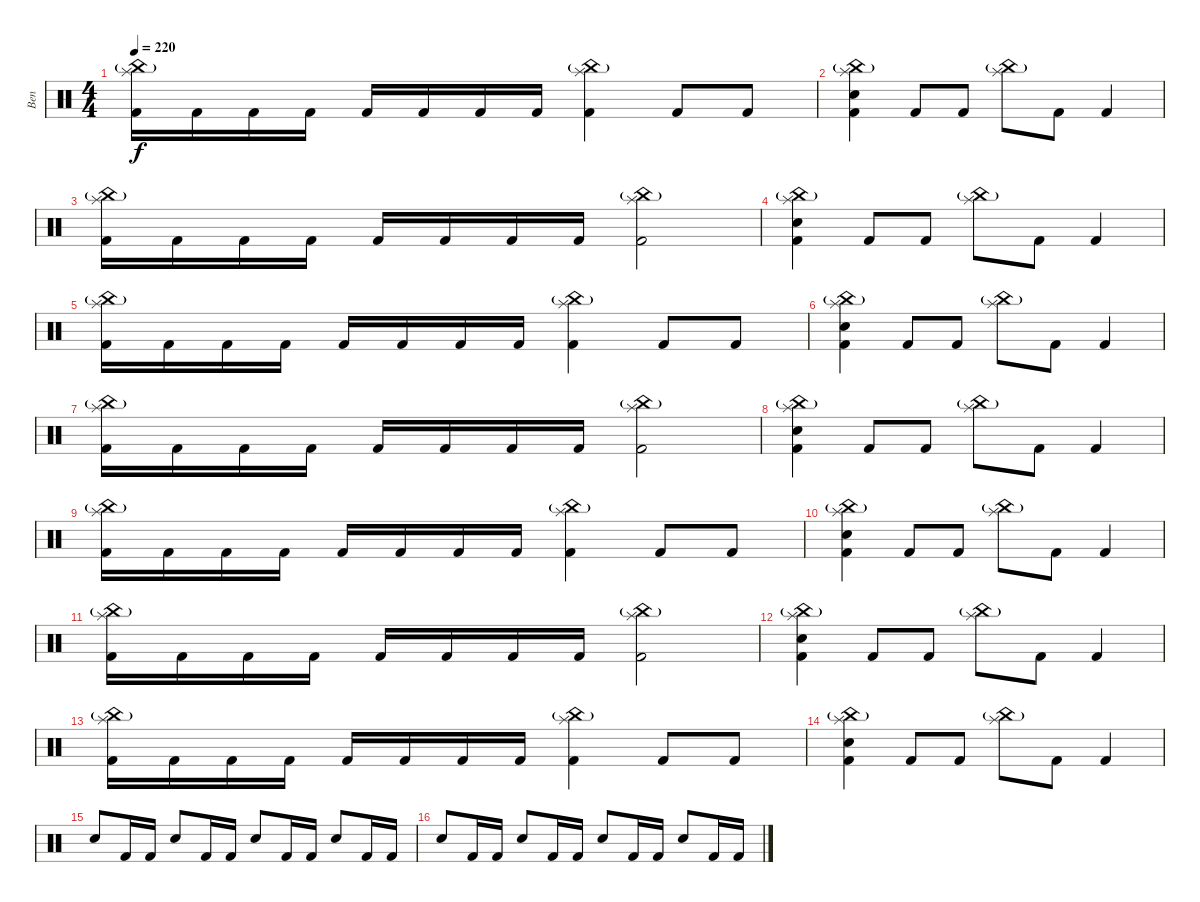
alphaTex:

\track ("Ben" "Ben") {instrument percussion}
\staff {score}
\articulation defaults
\ts (4 4)
\tempo 220
\clef neutral
\ks c
("China (hit)"{g} "Splash (hit)" "Kick (hit) 2").16{dy f} "Kick (hit) 2".16 "Kick (hit) 2".16 "Kick (hit) 2".16 "Kick (hit) 2".16 "Kick (hit) 2".16 "Kick (hit) 2".16 "Kick (hit) 2".16 ("China (hit)"{g} "Splash (hit)" "Kick (hit) 2").4 "Kick (hit) 2".8 "Kick (hit) 2".8 |
("China (hit)"{g} "Splash (hit)" "Snare (hit) 2" "Kick (hit) 2").4 "Kick (hit) 2".8 "Kick (hit) 2".8 ("China (hit)"{g} "Splash (hit)").8 "Kick (hit) 2".8 "Kick (hit) 2".4 |
("China (hit)"{g} "Splash (hit)" "Kick (hit) 2").16 "Kick (hit) 2".16 "Kick (hit) 2".16 "Kick (hit) 2".16 "Kick (hit) 2".16 "Kick (hit) 2".16 "Kick (hit) 2".16 "Kick (hit) 2".16 ("China (hit)"{g} "Splash (hit)" "Kick (hit) 2").2 |
("China (hit)"{g} "Splash (hit)" "Snare (hit) 2" "Kick (hit) 2").4 "Kick (hit) 2".8 "Kick (hit) 2".8 ("China (hit)"{g} "Splash (hit)").8 "Kick (hit) 2".8 "Kick (hit) 2".4 |
("China (hit)"{g} "Splash (hit)" "Kick (hit) 2").16 "Kick (hit) 2".16 "Kick (hit) 2".16 "Kick (hit) 2".16 "Kick (hit) 2".16 "Kick (hit) 2".16 "Kick (hit) 2".16 "Kick (hit) 2".16 ("China (hit)"{g} "Splash (hit)" "Kick (hit) 2").4 "Kick (hit) 2".8 "Kick (hit) 2".8 |
("China (hit)"{g} "Splash (hit)" "Snare (hit) 2" "Kick (hit) 2").4 "Kick (hit) 2".8 "Kick (hit) 2".8 ("China (hit)"{g} "Splash (hit)").8 "Kick (hit) 2".8 "Kick (hit) 2".4 |
("China (hit)"{g} "Splash (hit)" "Kick (hit) 2").16 "Kick (hit) 2".16 "Kick (hit) 2".16 "Kick (hit) 2".16 "Kick (hit) 2".16 "Kick (hit) 2".16 "Kick (hit) 2".16 "Kick (hit) 2".16 ("China (hit)"{g} "Splash (hit)" "Kick (hit) 2").2 |
("China (hit)"{g} "Splash (hit)" "Snare (hit) 2" "Kick (hit) 2").4 "Kick (hit) 2".8 "Kick (hit) 2".8 ("China (hit)"{g} "Splash (hit)").8 "Kick (hit) 2".8 "Kick (hit) 2".4 |
("China (hit)"{g} "Splash (hit)" "Kick (hit) 2").16 "Kick (hit) 2".16 "Kick (hit) 2".16 "Kick (hit) 2".16 "Kick (hit) 2".16 "Kick (hit) 2".16 "Kick (hit) 2".16 "Kick (hit) 2".16 ("China (hit)"{g} "Splash (hit)" "Kick (hit) 2").4 "Kick (hit) 2".8 "Kick (hit) 2".8 |
("China (hit)"{g} "Splash (hit)" "Snare (hit) 2" "Kick (hit) 2").4 "Kick (hit) 2".8 "Kick (hit) 2".8 ("China (hit)"{g} "Splash (hit)").8 "Kick (hit) 2".8 "Kick (hit) 2".4 |
("China (hit)"{g} "Splash (hit)" "Kick (hit) 2").16 "Kick (hit) 2".16 "Kick (hit) 2".16 "Kick (hit) 2".16 "Kick (hit) 2".16 "Kick (hit) 2".16 "Kick (hit) 2".16 "Kick (hit) 2".16 ("China (hit)"{g} "Splash (hit)" "Kick (hit) 2").2 |
("China (hit)"{g} "Splash (hit)" "Snare (hit) 2" "Kick (hit) 2").4 "Kick (hit) 2".8 "Kick (hit) 2".8 ("China (hit)"{g} "Splash (hit)").8 "Kick (hit) 2".8 "Kick (hit) 2".4 |
("China (hit)"{g} "Splash (hit)" "Kick (hit) 2").16 "Kick (hit) 2".16 "Kick (hit) 2".16 "Kick (hit) 2".16 "Kick (hit) 2".16 "Kick (hit) 2".16 "Kick (hit) 2".16 "Kick (hit) 2".16 ("China (hit)"{g} "Splash (hit)" "Kick (hit) 2").4 "Kick (hit) 2".8 "Kick (hit) 2".8 |
("China (hit)"{g} "Splash (hit)" "Snare (hit) 2" "Kick (hit) 2").4 "Kick (hit) 2".8 "Kick (hit) 2".8 ("China (hit)"{g} "Splash (hit)").8 "Kick (hit) 2".8 "Kick (hit) 2".4 |
"Snare (hit) 2".8 "Kick (hit) 2".16 "Kick (hit) 2".16 "Snare (hit) 2".8 "Kick (hit) 2".16 "Kick (hit) 2".16 "Snare (hit) 2".8 "Kick (hit) 2".16 "Kick (hit) 2".16 "Snare (hit) 2".8 "Kick (hit) 2".16 "Kick (hit) 2".16 |
"Snare (hit) 2".8 "Kick (hit) 2".16 "Kick (hit) 2".16 "Snare (hit) 2".8 "Kick (hit) 2".16 "Kick (hit) 2".16 "Snare (hit) 2".8 "Kick (hit) 2".16 "Kick (hit) 2".16 "Snare (hit) 2".8 "Kick (hit) 2".16 "Kick (hit) 2".16
